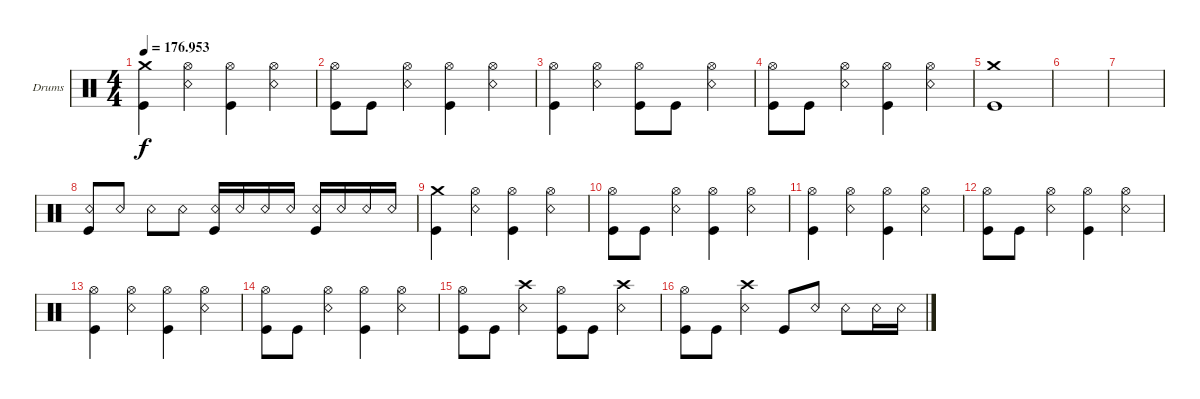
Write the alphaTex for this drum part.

\defaultSystemsLayout 4
\bracketExtendMode groupsimilarinstruments
\firstSystemTrackNameOrientation horizontal
\otherSystemsTrackNameOrientation horizontal
\track ("Christopher" "Drums") {instrument percussion}
\staff {score}
\articulation defaults
\ts (4 4)
\tempo
176.953
\accidentals auto
\clef neutral
\ottava regular
\simile none
\ks c
("Crash medium (hit)" "Kick (hit)").4{dy f} ("Snare (rim shot)" "Hi-Hat (open)").4 ("Hi-Hat (open)" "Kick (hit)").4 ("Snare (rim shot)" "Hi-Hat (open)").4 |
("Kick (hit)" "Hi-Hat (open)").8 "Kick (hit)".8 ("Snare (rim shot)" "Hi-Hat (open)").4 ("Kick (hit)" "Hi-Hat (open)").4 ("Snare (rim shot)" "Hi-Hat (open)").4 |
("Kick (hit)" "Hi-Hat (open)").4 ("Snare (rim shot)" "Hi-Hat (open)").4 ("Hi-Hat (open)" "Kick (hit)").8 "Kick (hit)".8 ("Snare (rim shot)" "Hi-Hat (open)").4 |
("Kick (hit)" "Hi-Hat (open)").8 "Kick (hit)".8 ("Snare (rim shot)" "Hi-Hat (open)").4 ("Kick (hit)" "Hi-Hat (open)").4 ("Snare (rim shot)" "Hi-Hat (open)").4 |
("Kick (hit)" "Crash medium (hit)").1 |
|
|
("Snare (rim shot)" "Kick (hit)").8 "Snare (rim shot)".8 "Snare (rim shot)".8 "Snare (rim shot)".8 ("Snare (rim shot)" "Kick (hit)").16 "Snare (rim shot)".16 "Snare (rim shot)".16 "Snare (rim shot)".16 ("Snare (rim shot)" "Kick (hit)").16 "Snare (rim shot)".16 "Snare (rim shot)".16 "Snare (rim shot)".16 |
("Crash medium (hit)" "Kick (hit)").4 ("Snare (rim shot)" "Hi-Hat (open)").4 ("Hi-Hat (open)" "Kick (hit)").4 ("Snare (rim shot)" "Hi-Hat (open)").4 |
("Kick (hit)" "Hi-Hat (open)").8 "Kick (hit)".8 ("Snare (rim shot)" "Hi-Hat (open)").4 ("Kick (hit)" "Hi-Hat (open)").4 ("Snare (rim shot)" "Hi-Hat (open)").4 |
("Kick (hit)" "Hi-Hat (open)").4 ("Snare (rim shot)" "Hi-Hat (open)").4 ("Hi-Hat (open)" "Kick (hit)").4 ("Snare (rim shot)" "Hi-Hat (open)").4 |
("Kick (hit)" "Hi-Hat (open)").8 "Kick (hit)".8 ("Snare (rim shot)" "Hi-Hat (open)").4 ("Kick (hit)" "Hi-Hat (open)").4 ("Snare (rim shot)" "Hi-Hat (open)").4 |
("Kick (hit)" "Hi-Hat (open)").4 ("Snare (rim shot)" "Hi-Hat (open)").4 ("Hi-Hat (open)" "Kick (hit)").4 ("Snare (rim shot)" "Hi-Hat (open)").4 |
("Kick (hit)" "Hi-Hat (open)").8 "Kick (hit)".8 ("Snare (rim shot)" "Hi-Hat (open)").4 ("Kick (hit)" "Hi-Hat (open)").4 ("Snare (rim shot)" "Hi-Hat (open)").4 |
("Kick (hit)" "Hi-Hat (open)").8 "Kick (hit)".8 ("Snare (rim shot)" "Crash high (hit)").4 ("Kick (hit)" "Hi-Hat (open)").8 "Kick (hit)".8 ("Snare (rim shot)" "Crash high (hit)").4 |
("Kick (hit)" "Hi-Hat (open)").8 "Kick (hit)".8 ("Snare (rim shot)" "Crash high (hit)").4 "Kick (hit)".8 "Snare (rim shot)".8 "Snare (rim shot)".8 "Snare (rim shot)".16 "Snare (rim shot)".16
